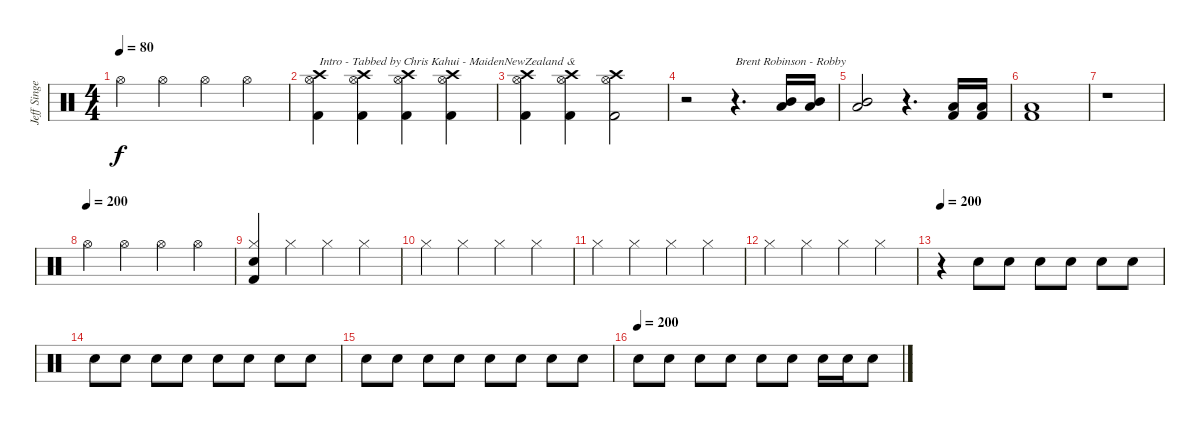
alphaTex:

\track ("Jeff Singer" "Jeff Singe") {instrument percussion}
\staff {score}
\articulation defaults
\ts (4 4)
\tempo 80
\clef neutral
\ks c "Hi-Hat (open)".4{dy f} "Hi-Hat (open)".4 "Hi-Hat (open)".4 "Hi-Hat (open)".4
|
("Crash high (hit)" "Hi-Hat (open)" "Kick (hit) 2").4{txt "Intro - Tabbed by Chris Kahui - MaidenNewZealand &"} ("Crash high (hit)" "Hi-Hat (open)" "Kick (hit) 2").4 ("Crash high (hit)" "Hi-Hat (open)" "Kick (hit) 2").4 ("Crash high (hit)" "Hi-Hat (open)" "Kick (hit) 2").4 |
("Crash high (hit)" "Hi-Hat (open)" "Kick (hit) 2").4 ("Crash high (hit)" "Hi-Hat (open)" "Kick (hit) 2").4 ("Crash high (hit)" "Hi-Hat (open)" "Kick (hit) 2").2 |
r.2 r.4{d txt "Brent Robinson - Robby"} ("Low Tom (hit)" "Mid Tom (hit)").16 ("Low Tom (hit)" "Mid Tom (hit)").16 |
("Low Tom (hit)" "Mid Tom (hit)").2 r.4{d} ("Low Tom (hit)" "Kick (hit) 2").16 ("Low Tom (hit)" "Kick (hit) 2").16 |
("Low Tom (hit)" "Kick (hit) 2").1 |
r.1 |
\tempo (200)
"Hi-Hat (open)".4 "Hi-Hat (open)".4 "Hi-Hat (open)".4 "Hi-Hat (open)".4 |
("Hi-Hat (closed)" "Snare (hit) 2" "Kick (hit) 2").4 "Hi-Hat (closed)".4 "Hi-Hat (closed)".4 "Hi-Hat (closed)".4 |
"Hi-Hat (closed)".4 "Hi-Hat (closed)".4 "Hi-Hat (closed)".4 "Hi-Hat (closed)".4 |
"Hi-Hat (closed)".4 "Hi-Hat (closed)".4 "Hi-Hat (closed)".4 "Hi-Hat (closed)".4 |
"Hi-Hat (closed)".4 "Hi-Hat (closed)".4 "Hi-Hat (closed)".4 "Hi-Hat (closed)".4 |
\tempo 200
r.4{volume 16} "Snare (hit) 2".8 "Snare (hit) 2".8 "Snare (hit) 2".8 "Snare (hit) 2".8 "Snare (hit) 2".8 "Snare (hit) 2".8 |
"Snare (hit) 2".8 "Snare (hit) 2".8 "Snare (hit) 2".8 "Snare (hit) 2".8 "Snare (hit) 2".8 "Snare (hit) 2".8 "Snare (hit) 2".8 "Snare (hit) 2".8 |
"Snare (hit) 2".8 "Snare (hit) 2".8 "Snare (hit) 2".8 "Snare (hit) 2".8 "Snare (hit) 2".8 "Snare (hit) 2".8 "Snare (hit) 2".8 "Snare (hit) 2".8 |
\tempo (200)
"Snare (hit) 2".8 "Snare (hit) 2".8 "Snare (hit) 2".8 "Snare (hit) 2".8 "Snare (hit) 2".8 "Snare (hit) 2".8 "Snare (hit) 2".16 "Snare (hit) 2".16 "Snare (hit) 2".8
